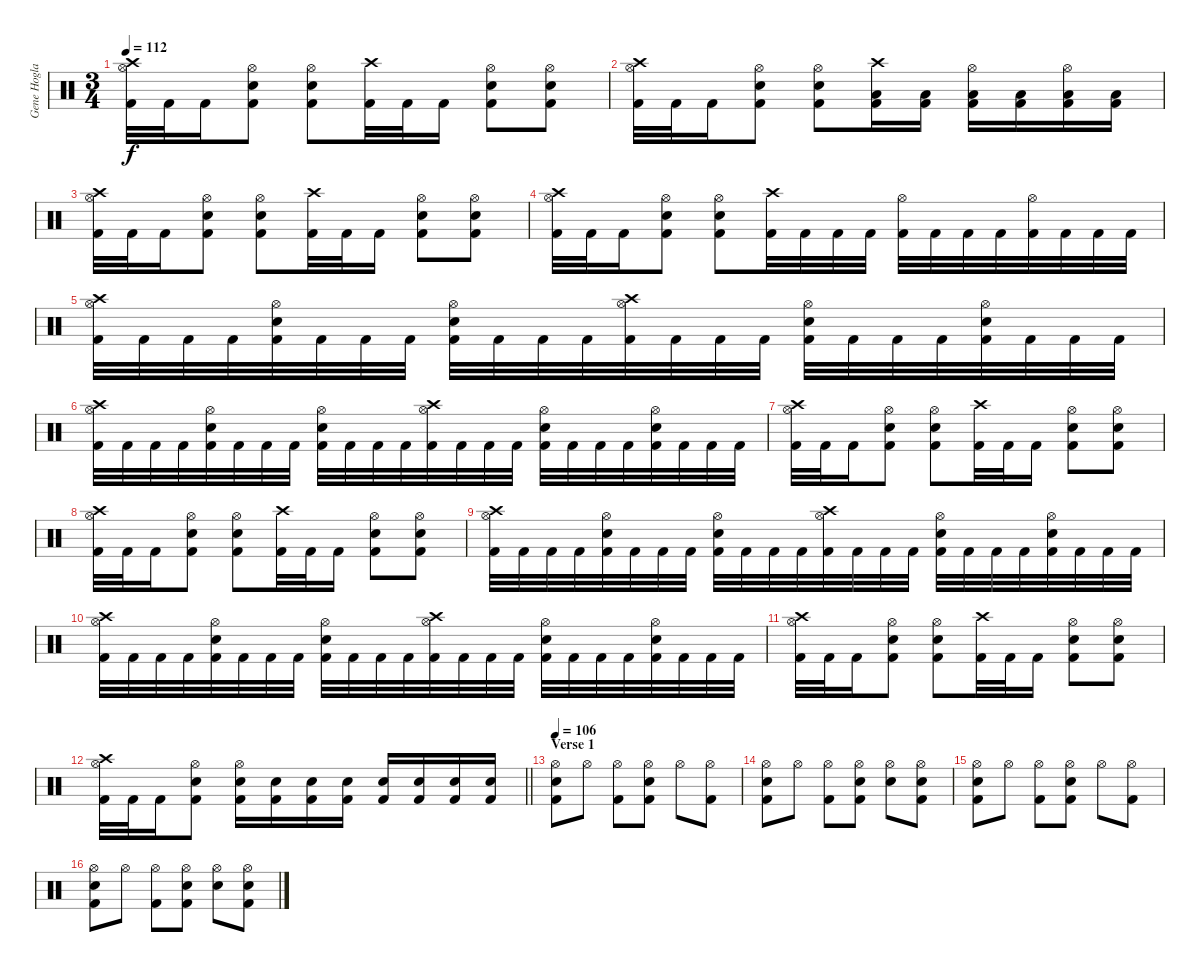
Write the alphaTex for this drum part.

\track ("Gene Hogland" "Gene Hogla") {instrument percussion}
\staff {score}
\articulation defaults
\ts (3 4)
\tempo 112
\clef neutral
\ks c
("Hi-Hat (open)" "Crash high (hit)" "Kick (hit) 2").32{dy f} "Kick (hit) 2".32 "Kick (hit) 2".16 ("Hi-Hat (open)" "Electric Snare (hit)" "Kick (hit) 2").8 ("Hi-Hat (open)" "Electric Snare (hit)" "Kick (hit) 2").8 ("Crash high (hit)" "Kick (hit) 2").32 "Kick (hit) 2".32 "Kick (hit) 2".16 ("Hi-Hat (open)" "Electric Snare (hit)" "Kick (hit) 2").8 ("Hi-Hat (open)" "Electric Snare (hit)" "Kick (hit) 2").8 |
("Hi-Hat (open)" "Crash high (hit)" "Kick (hit) 2").32 "Kick (hit) 2".32 "Kick (hit) 2".16 ("Hi-Hat (open)" "Electric Snare (hit)" "Kick (hit) 2").8 ("Hi-Hat (open)" "Electric Snare (hit)" "Kick (hit) 2").8 ("Crash high (hit)" "Low Tom (hit)" "Kick (hit) 2").16 ("Low Tom (hit)" "Kick (hit) 2").16 ("Hi-Hat (open)" "Low Tom (hit)" "Kick (hit) 2").16 ("Low Tom (hit)" "Kick (hit) 2").16 ("Hi-Hat (open)" "Low Tom (hit)" "Kick (hit) 2").16 ("Low Tom (hit)" "Kick (hit) 2").16 |
("Hi-Hat (open)" "Crash high (hit)" "Kick (hit) 2").32 "Kick (hit) 2".32 "Kick (hit) 2".16 ("Hi-Hat (open)" "Electric Snare (hit)" "Kick (hit) 2").8 ("Hi-Hat (open)" "Electric Snare (hit)" "Kick (hit) 2").8 ("Crash high (hit)" "Kick (hit) 2").32 "Kick (hit) 2".32 "Kick (hit) 2".16 ("Hi-Hat (open)" "Electric Snare (hit)" "Kick (hit) 2").8 ("Hi-Hat (open)" "Electric Snare (hit)" "Kick (hit) 2").8 |
("Hi-Hat (open)" "Crash high (hit)" "Kick (hit) 2").32 "Kick (hit) 2".32 "Kick (hit) 2".16 ("Hi-Hat (open)" "Electric Snare (hit)" "Kick (hit) 2").8 ("Hi-Hat (open)" "Electric Snare (hit)" "Kick (hit) 2").8 ("Crash high (hit)" "Kick (hit) 2").32 "Kick (hit) 2".32 "Kick (hit) 2".32 "Kick (hit) 2".32 ("Hi-Hat (open)" "Kick (hit) 2").32 "Kick (hit) 2".32 "Kick (hit) 2".32 "Kick (hit) 2".32 ("Hi-Hat (open)" "Kick (hit) 2").32 "Kick (hit) 2".32 "Kick (hit) 2".32 "Kick (hit) 2".32 |
("Hi-Hat (open)" "Crash high (hit)" "Kick (hit) 2").32 "Kick (hit) 2".32 "Kick (hit) 2".32 "Kick (hit) 2".32 ("Hi-Hat (open)" "Electric Snare (hit)" "Kick (hit) 2").32 "Kick (hit) 2".32 "Kick (hit) 2".32 "Kick (hit) 2".32 ("Hi-Hat (open)" "Electric Snare (hit)" "Kick (hit) 2").32 "Kick (hit) 2".32 "Kick (hit) 2".32 "Kick (hit) 2".32 ("Hi-Hat (open)" "Crash high (hit)" "Kick (hit) 2").32 "Kick (hit) 2".32 "Kick (hit) 2".32 "Kick (hit) 2".32 ("Hi-Hat (open)" "Electric Snare (hit)" "Kick (hit) 2").32 "Kick (hit) 2".32 "Kick (hit) 2".32 "Kick (hit) 2".32 ("Hi-Hat (open)" "Electric Snare (hit)" "Kick (hit) 2").32 "Kick (hit) 2".32 "Kick (hit) 2".32 "Kick (hit) 2".32 |
("Hi-Hat (open)" "Crash high (hit)" "Kick (hit) 2").32 "Kick (hit) 2".32 "Kick (hit) 2".32 "Kick (hit) 2".32 ("Hi-Hat (open)" "Electric Snare (hit)" "Kick (hit) 2").32 "Kick (hit) 2".32 "Kick (hit) 2".32 "Kick (hit) 2".32 ("Hi-Hat (open)" "Electric Snare (hit)" "Kick (hit) 2").32 "Kick (hit) 2".32 "Kick (hit) 2".32 "Kick (hit) 2".32 ("Hi-Hat (open)" "Crash high (hit)" "Kick (hit) 2").32 "Kick (hit) 2".32 "Kick (hit) 2".32 "Kick (hit) 2".32 ("Hi-Hat (open)" "Electric Snare (hit)" "Kick (hit) 2").32 "Kick (hit) 2".32 "Kick (hit) 2".32 "Kick (hit) 2".32 ("Hi-Hat (open)" "Electric Snare (hit)" "Kick (hit) 2").32 "Kick (hit) 2".32 "Kick (hit) 2".32 "Kick (hit) 2".32 |
("Hi-Hat (open)" "Crash high (hit)" "Kick (hit) 2").32 "Kick (hit) 2".32 "Kick (hit) 2".16 ("Hi-Hat (open)" "Electric Snare (hit)" "Kick (hit) 2").8 ("Hi-Hat (open)" "Electric Snare (hit)" "Kick (hit) 2").8 ("Crash high (hit)" "Kick (hit) 2").32 "Kick (hit) 2".32 "Kick (hit) 2".16 ("Hi-Hat (open)" "Electric Snare (hit)" "Kick (hit) 2").8 ("Hi-Hat (open)" "Electric Snare (hit)" "Kick (hit) 2").8 |
("Hi-Hat (open)" "Crash high (hit)" "Kick (hit) 2").32 "Kick (hit) 2".32 "Kick (hit) 2".16 ("Hi-Hat (open)" "Electric Snare (hit)" "Kick (hit) 2").8 ("Hi-Hat (open)" "Electric Snare (hit)" "Kick (hit) 2").8 ("Crash high (hit)" "Kick (hit) 2").32 "Kick (hit) 2".32 "Kick (hit) 2".16 ("Hi-Hat (open)" "Electric Snare (hit)" "Kick (hit) 2").8 ("Hi-Hat (open)" "Electric Snare (hit)" "Kick (hit) 2").8 |
("Hi-Hat (open)" "Crash high (hit)" "Kick (hit) 2").32 "Kick (hit) 2".32 "Kick (hit) 2".32 "Kick (hit) 2".32 ("Hi-Hat (open)" "Electric Snare (hit)" "Kick (hit) 2").32 "Kick (hit) 2".32 "Kick (hit) 2".32 "Kick (hit) 2".32 ("Hi-Hat (open)" "Electric Snare (hit)" "Kick (hit) 2").32 "Kick (hit) 2".32 "Kick (hit) 2".32 "Kick (hit) 2".32 ("Hi-Hat (open)" "Crash high (hit)" "Kick (hit) 2").32 "Kick (hit) 2".32 "Kick (hit) 2".32 "Kick (hit) 2".32 ("Hi-Hat (open)" "Electric Snare (hit)" "Kick (hit) 2").32 "Kick (hit) 2".32 "Kick (hit) 2".32 "Kick (hit) 2".32 ("Hi-Hat (open)" "Electric Snare (hit)" "Kick (hit) 2").32 "Kick (hit) 2".32 "Kick (hit) 2".32 "Kick (hit) 2".32 |
("Hi-Hat (open)" "Crash high (hit)" "Kick (hit) 2").32 "Kick (hit) 2".32 "Kick (hit) 2".32 "Kick (hit) 2".32 ("Hi-Hat (open)" "Electric Snare (hit)" "Kick (hit) 2").32 "Kick (hit) 2".32 "Kick (hit) 2".32 "Kick (hit) 2".32 ("Hi-Hat (open)" "Electric Snare (hit)" "Kick (hit) 2").32 "Kick (hit) 2".32 "Kick (hit) 2".32 "Kick (hit) 2".32 ("Hi-Hat (open)" "Crash high (hit)" "Kick (hit) 2").32 "Kick (hit) 2".32 "Kick (hit) 2".32 "Kick (hit) 2".32 ("Hi-Hat (open)" "Electric Snare (hit)" "Kick (hit) 2").32 "Kick (hit) 2".32 "Kick (hit) 2".32 "Kick (hit) 2".32 ("Hi-Hat (open)" "Electric Snare (hit)" "Kick (hit) 2").32 "Kick (hit) 2".32 "Kick (hit) 2".32 "Kick (hit) 2".32 |
("Hi-Hat (open)" "Crash high (hit)" "Kick (hit) 2").32 "Kick (hit) 2".32 "Kick (hit) 2".16 ("Hi-Hat (open)" "Electric Snare (hit)" "Kick (hit) 2").8 ("Hi-Hat (open)" "Electric Snare (hit)" "Kick (hit) 2").8 ("Crash high (hit)" "Kick (hit) 2").32 "Kick (hit) 2".32 "Kick (hit) 2".16 ("Hi-Hat (open)" "Electric Snare (hit)" "Kick (hit) 2").8 ("Hi-Hat (open)" "Electric Snare (hit)" "Kick (hit) 2").8 |
\barLineRight lightlight
("Hi-Hat (open)" "Crash high (hit)" "Kick (hit) 2").32 "Kick (hit) 2".32 "Kick (hit) 2".16 ("Hi-Hat (open)" "Electric Snare (hit)" "Kick (hit) 2").8 ("Hi-Hat (open)" "Electric Snare (hit)" "Kick (hit) 2").16 ("Electric Snare (hit)" "Kick (hit) 2").16 ("Electric Snare (hit)" "Kick (hit) 2").16 ("Electric Snare (hit)" "Kick (hit) 2").16 ("Electric Snare (hit)" "Kick (hit) 2").16 ("Electric Snare (hit)" "Kick (hit) 2").16 ("Electric Snare (hit)" "Kick (hit) 2").16 ("Electric Snare (hit)" "Kick (hit) 2").16 |
\section ("" "Verse 1")
\tempo 106
("Hi-Hat (open)" "Electric Snare (hit)" "Kick (hit) 2").8 "Hi-Hat (open)".8 ("Hi-Hat (open)" "Kick (hit) 2").8 ("Hi-Hat (open)" "Electric Snare (hit)" "Kick (hit) 2").8 "Hi-Hat (open)".8 ("Hi-Hat (open)" "Kick (hit) 2").8 |
("Hi-Hat (open)" "Electric Snare (hit)" "Kick (hit) 2").8 "Hi-Hat (open)".8 ("Hi-Hat (open)" "Kick (hit) 2").8 ("Hi-Hat (open)" "Electric Snare (hit)" "Kick (hit) 2").8 ("Hi-Hat (open)" "Electric Snare (hit)").8 ("Hi-Hat (open)" "Electric Snare (hit)" "Kick (hit) 2").8 |
("Hi-Hat (open)" "Electric Snare (hit)" "Kick (hit) 2").8 "Hi-Hat (open)".8 ("Hi-Hat (open)" "Kick (hit) 2").8 ("Hi-Hat (open)" "Electric Snare (hit)" "Kick (hit) 2").8 "Hi-Hat (open)".8 ("Hi-Hat (open)" "Kick (hit) 2").8 |
("Hi-Hat (open)" "Electric Snare (hit)" "Kick (hit) 2").8 "Hi-Hat (open)".8 ("Hi-Hat (open)" "Kick (hit) 2").8 ("Hi-Hat (open)" "Electric Snare (hit)" "Kick (hit) 2").8 ("Hi-Hat (open)" "Electric Snare (hit)").8 ("Hi-Hat (open)" "Electric Snare (hit)" "Kick (hit) 2").8
